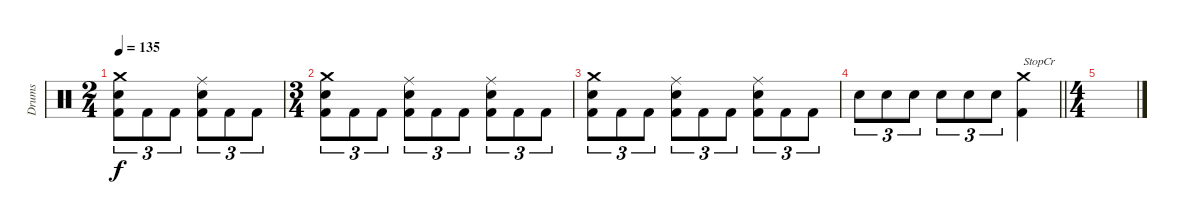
\track ("Drums" "Drums") {instrument percussion}
\staff {score}
\articulation defaults
\ts (2 4)
\tempo 135
\clef neutral
\ks c
("Crash medium (hit)" "Snare (hit) 2" "Kick (hit) 2").8{tu (3 2) dy f} "Kick (hit) 2".8{tu (3 2)} "Kick (hit) 2".8{tu (3 2)} ("Ride (middle)" "Snare (hit) 2" "Kick (hit) 2").8{tu (3 2)} "Kick (hit) 2".8{tu (3 2)} "Kick (hit) 2".8{tu (3 2)} |
\ts (3 4)
("Crash medium (hit)" "Snare (hit) 2" "Kick (hit) 2").8{tu (3 2)} "Kick (hit) 2".8{tu (3 2)} "Kick (hit) 2".8{tu (3 2)} ("Ride (middle)" "Snare (hit) 2" "Kick (hit) 2").8{tu (3 2)} "Kick (hit) 2".8{tu (3 2)} "Kick (hit) 2".8{tu (3 2)} ("Ride (middle)" "Snare (hit) 2" "Kick (hit) 2").8{tu (3 2)} "Kick (hit) 2".8{tu (3 2)} "Kick (hit) 2".8{tu (3 2)} |
("Crash medium (hit)" "Snare (hit) 2" "Kick (hit) 2").8{tu (3 2)} "Kick (hit) 2".8{tu (3 2)} "Kick (hit) 2".8{tu (3 2)} ("Ride (middle)" "Snare (hit) 2" "Kick (hit) 2").8{tu (3 2)} "Kick (hit) 2".8{tu (3 2)} "Kick (hit) 2".8{tu (3 2)} ("Ride (middle)" "Snare (hit) 2" "Kick (hit) 2").8{tu (3 2)} "Kick (hit) 2".8{tu (3 2)} "Kick (hit) 2".8{tu (3 2)} |
\barLineRight lightlight "Snare (hit) 2".8{tu (3 2)} "Snare (hit) 2".8{tu (3 2)} "Snare (hit) 2".8{tu (3 2)} "Snare (hit) 2".8{tu (3 2)} "Snare (hit) 2".8{tu (3 2)} "Snare (hit) 2".8{tu (3 2)}
("Crash medium (hit)" "Kick (hit) 2").4{txt "StopCr"} |
\ts (4 4)
